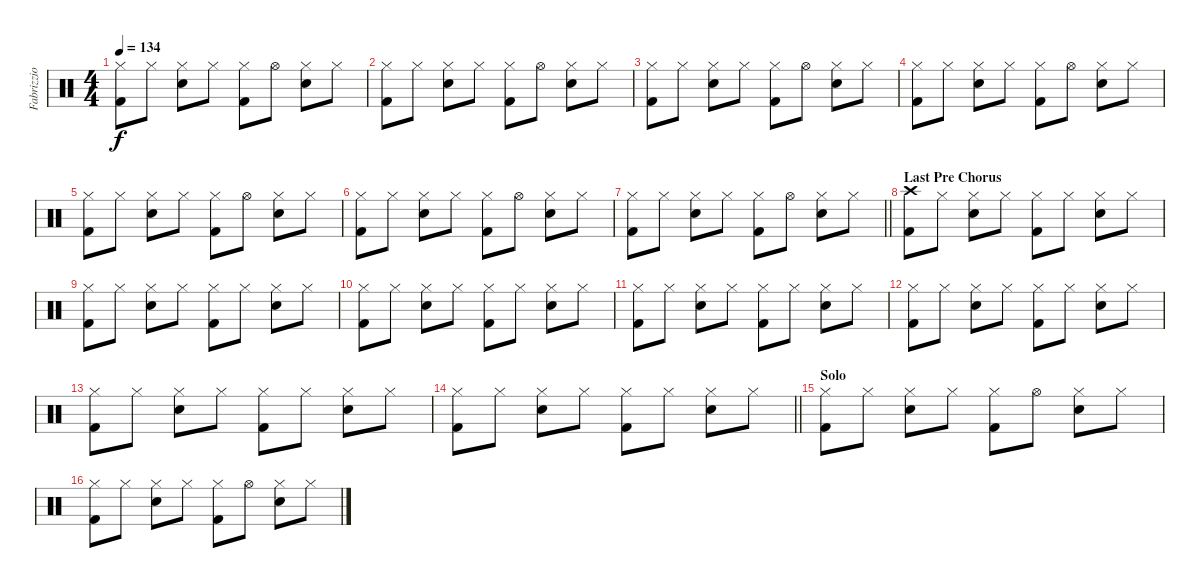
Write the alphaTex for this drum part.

\track ("Fabrizzio" "Fabrizzio") {instrument percussion}
\staff {score}
\articulation defaults
\ts (4 4)
\tempo 134
\clef neutral
\ks c
("Hi-Hat (closed)" "Kick (hit) 2").8{dy f} "Hi-Hat (closed)".8 ("Hi-Hat (closed)" "Snare (hit) 2").8 "Hi-Hat (closed)".8 ("Hi-Hat (closed)" "Kick (hit) 2").8 "Hi-Hat (open)".8 ("Hi-Hat (closed)" "Snare (hit) 2").8 "Hi-Hat (closed)".8 |
("Hi-Hat (closed)" "Kick (hit) 2").8 "Hi-Hat (closed)".8 ("Hi-Hat (closed)" "Snare (hit) 2").8 "Hi-Hat (closed)".8 ("Hi-Hat (closed)" "Kick (hit) 2").8 "Hi-Hat (open)".8 ("Hi-Hat (closed)" "Snare (hit) 2").8 "Hi-Hat (closed)".8 |
("Hi-Hat (closed)" "Kick (hit) 2").8 "Hi-Hat (closed)".8 ("Hi-Hat (closed)" "Snare (hit) 2").8 "Hi-Hat (closed)".8 ("Hi-Hat (closed)" "Kick (hit) 2").8 "Hi-Hat (open)".8 ("Hi-Hat (closed)" "Snare (hit) 2").8 "Hi-Hat (closed)".8 |
("Hi-Hat (closed)" "Kick (hit) 2").8 "Hi-Hat (closed)".8 ("Hi-Hat (closed)" "Snare (hit) 2").8 "Hi-Hat (closed)".8 ("Hi-Hat (closed)" "Kick (hit) 2").8 "Hi-Hat (open)".8 ("Hi-Hat (closed)" "Snare (hit) 2").8 "Hi-Hat (closed)".8 |
("Hi-Hat (closed)" "Kick (hit) 2").8 "Hi-Hat (closed)".8 ("Hi-Hat (closed)" "Snare (hit) 2").8 "Hi-Hat (closed)".8 ("Hi-Hat (closed)" "Kick (hit) 2").8 "Hi-Hat (open)".8 ("Hi-Hat (closed)" "Snare (hit) 2").8 "Hi-Hat (closed)".8 |
("Hi-Hat (closed)" "Kick (hit) 2").8 "Hi-Hat (closed)".8 ("Hi-Hat (closed)" "Snare (hit) 2").8 "Hi-Hat (closed)".8 ("Hi-Hat (closed)" "Kick (hit) 2").8 "Hi-Hat (open)".8 ("Hi-Hat (closed)" "Snare (hit) 2").8 "Hi-Hat (closed)".8 |
\barLineRight lightlight
("Hi-Hat (closed)" "Kick (hit) 2").8 "Hi-Hat (closed)".8 ("Hi-Hat (closed)" "Snare (hit) 2").8 "Hi-Hat (closed)".8 ("Hi-Hat (closed)" "Kick (hit) 2").8 "Hi-Hat (open)".8 ("Hi-Hat (closed)" "Snare (hit) 2").8 "Hi-Hat (closed)".8 |
\section ("" "Last Pre Chorus")
("Crash high (hit)" "Kick (hit) 2").8 "Hi-Hat (closed)".8 ("Hi-Hat (closed)" "Snare (hit) 2").8 "Hi-Hat (closed)".8 ("Hi-Hat (closed)" "Kick (hit) 2").8 "Hi-Hat (closed)".8 ("Hi-Hat (closed)" "Snare (hit) 2").8 "Hi-Hat (closed)".8 |
("Hi-Hat (closed)" "Kick (hit) 2").8 "Hi-Hat (closed)".8 ("Hi-Hat (closed)" "Snare (hit) 2").8 "Hi-Hat (closed)".8 ("Hi-Hat (closed)" "Kick (hit) 2").8 "Hi-Hat (closed)".8 ("Hi-Hat (closed)" "Snare (hit) 2").8 "Hi-Hat (closed)".8 |
("Hi-Hat (closed)" "Kick (hit) 2").8 "Hi-Hat (closed)".8 ("Hi-Hat (closed)" "Snare (hit) 2").8 "Hi-Hat (closed)".8 ("Hi-Hat (closed)" "Kick (hit) 2").8 "Hi-Hat (closed)".8 ("Hi-Hat (closed)" "Snare (hit) 2").8 "Hi-Hat (closed)".8 |
("Hi-Hat (closed)" "Kick (hit) 2").8 "Hi-Hat (closed)".8 ("Hi-Hat (closed)" "Snare (hit) 2").8 "Hi-Hat (closed)".8 ("Hi-Hat (closed)" "Kick (hit) 2").8 "Hi-Hat (closed)".8 ("Hi-Hat (closed)" "Snare (hit) 2").8 "Hi-Hat (closed)".8 |
("Hi-Hat (closed)" "Kick (hit) 2").8 "Hi-Hat (closed)".8 ("Hi-Hat (closed)" "Snare (hit) 2").8 "Hi-Hat (closed)".8 ("Hi-Hat (closed)" "Kick (hit) 2").8 "Hi-Hat (closed)".8 ("Hi-Hat (closed)" "Snare (hit) 2").8 "Hi-Hat (closed)".8 |
("Hi-Hat (closed)" "Kick (hit) 2").8 "Hi-Hat (closed)".8 ("Hi-Hat (closed)" "Snare (hit) 2").8 "Hi-Hat (closed)".8 ("Hi-Hat (closed)" "Kick (hit) 2").8 "Hi-Hat (closed)".8 ("Hi-Hat (closed)" "Snare (hit) 2").8 "Hi-Hat (closed)".8 |
\barLineRight lightlight
("Hi-Hat (closed)" "Kick (hit) 2").8 "Hi-Hat (closed)".8 ("Hi-Hat (closed)" "Snare (hit) 2").8 "Hi-Hat (closed)".8 ("Hi-Hat (closed)" "Kick (hit) 2").8 "Hi-Hat (closed)".8 ("Hi-Hat (closed)" "Snare (hit) 2").8 "Hi-Hat (closed)".8 |
\section ("" "Solo")
("Hi-Hat (closed)" "Kick (hit) 2").8 "Hi-Hat (closed)".8 ("Hi-Hat (closed)" "Snare (hit) 2").8 "Hi-Hat (closed)".8 ("Hi-Hat (closed)" "Kick (hit) 2").8 "Hi-Hat (open)".8 ("Hi-Hat (closed)" "Snare (hit) 2").8 "Hi-Hat (closed)".8 |
("Hi-Hat (closed)" "Kick (hit) 2").8 "Hi-Hat (closed)".8 ("Hi-Hat (closed)" "Snare (hit) 2").8 "Hi-Hat (closed)".8 ("Hi-Hat (closed)" "Kick (hit) 2").8 "Hi-Hat (open)".8 ("Hi-Hat (closed)" "Snare (hit) 2").8 "Hi-Hat (closed)".8
